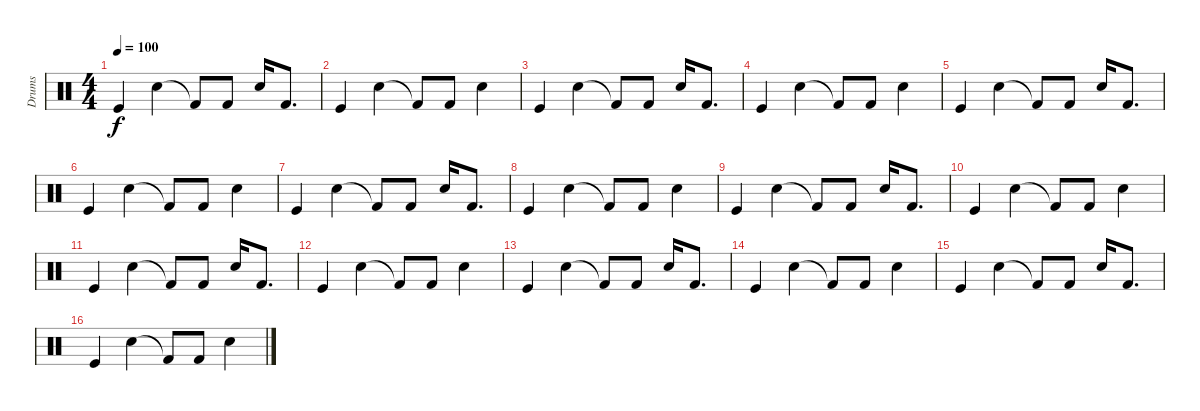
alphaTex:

\track ("Drums" "Drums") {instrument percussion}
\staff {score}
\articulation defaults
\ts (4 4)
\tempo 100
\clef neutral
\ks c "Kick (hit)".4{dy f} "Snare (hit) 2".4 "Kick (hit) 2"{t}.8 "Kick (hit) 2".8 "Snare (hit) 2".16 "Kick (hit) 2".8{d}
|
"Kick (hit)".4 "Snare (hit) 2".4 "Kick (hit) 2"{t}.8 "Kick (hit) 2".8 "Snare (hit) 2".4 |
"Kick (hit)".4 "Snare (hit) 2".4 "Kick (hit) 2"{t}.8 "Kick (hit) 2".8 "Snare (hit) 2".16 "Kick (hit) 2".8{d} |
"Kick (hit)".4 "Snare (hit) 2".4 "Kick (hit) 2"{t}.8 "Kick (hit) 2".8 "Snare (hit) 2".4 |
"Kick (hit)".4 "Snare (hit) 2".4 "Kick (hit) 2"{t}.8 "Kick (hit) 2".8 "Snare (hit) 2".16 "Kick (hit) 2".8{d} |
"Kick (hit)".4 "Snare (hit) 2".4 "Kick (hit) 2"{t}.8 "Kick (hit) 2".8 "Snare (hit) 2".4 |
"Kick (hit)".4 "Snare (hit) 2".4 "Kick (hit) 2"{t}.8 "Kick (hit) 2".8 "Snare (hit) 2".16 "Kick (hit) 2".8{d} |
"Kick (hit)".4 "Snare (hit) 2".4 "Kick (hit) 2"{t}.8 "Kick (hit) 2".8 "Snare (hit) 2".4 |
"Kick (hit)".4 "Snare (hit) 2".4 "Kick (hit) 2"{t}.8 "Kick (hit) 2".8 "Snare (hit) 2".16 "Kick (hit) 2".8{d} |
"Kick (hit)".4 "Snare (hit) 2".4 "Kick (hit) 2"{t}.8 "Kick (hit) 2".8 "Snare (hit) 2".4 |
"Kick (hit)".4 "Snare (hit) 2".4 "Kick (hit) 2"{t}.8 "Kick (hit) 2".8 "Snare (hit) 2".16 "Kick (hit) 2".8{d} |
"Kick (hit)".4 "Snare (hit) 2".4 "Kick (hit) 2"{t}.8 "Kick (hit) 2".8 "Snare (hit) 2".4 |
"Kick (hit)".4 "Snare (hit) 2".4 "Kick (hit) 2"{t}.8 "Kick (hit) 2".8 "Snare (hit) 2".16 "Kick (hit) 2".8{d} |
"Kick (hit)".4 "Snare (hit) 2".4 "Kick (hit) 2"{t}.8 "Kick (hit) 2".8 "Snare (hit) 2".4 |
"Kick (hit)".4 "Snare (hit) 2".4 "Kick (hit) 2"{t}.8 "Kick (hit) 2".8 "Snare (hit) 2".16 "Kick (hit) 2".8{d} |
"Kick (hit)".4 "Snare (hit) 2".4 "Kick (hit) 2"{t}.8 "Kick (hit) 2".8 "Snare (hit) 2".4
